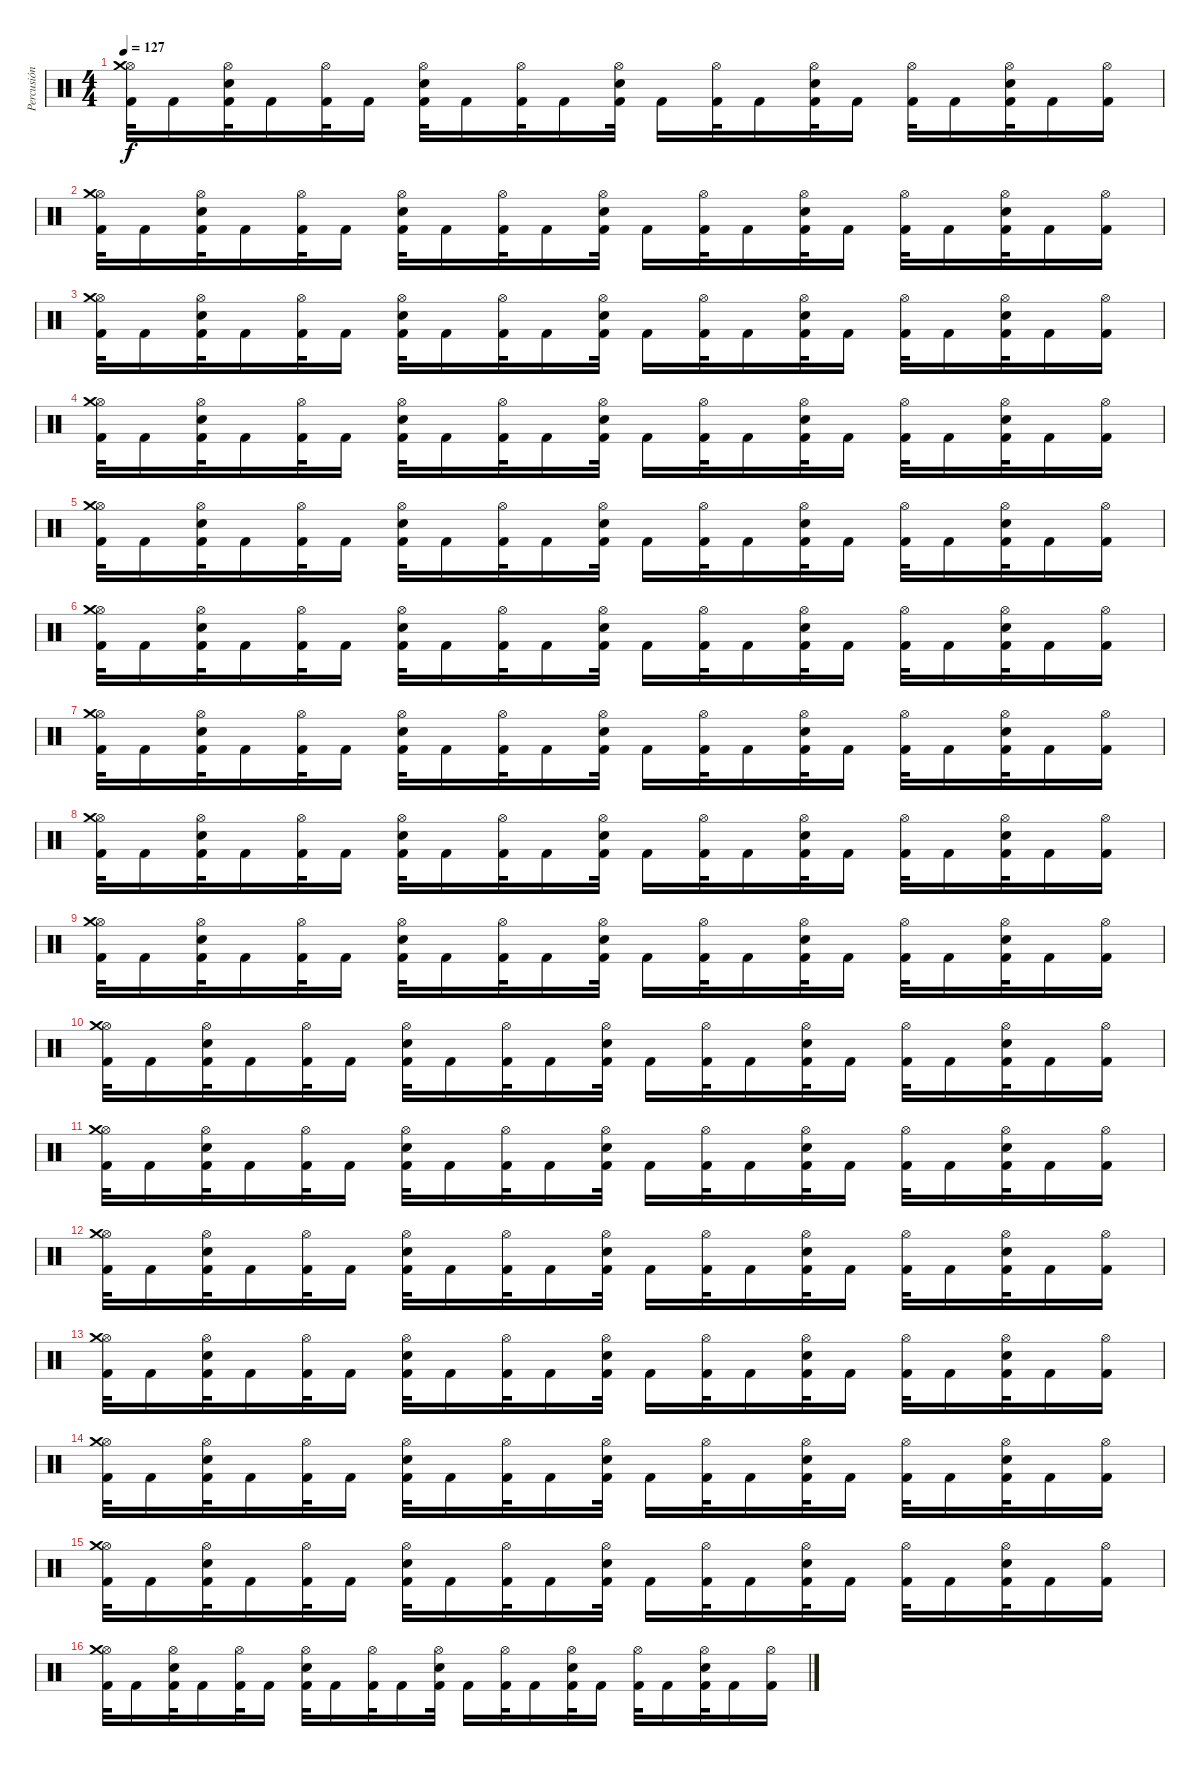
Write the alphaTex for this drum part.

\track ("Percusión" "Percusión") {instrument percussion}
\staff {score}
\articulation defaults
\ts (4 4)
\tempo 127
\clef neutral
\ks c
("Hi-Hat (open)" "Kick (hit) 2" "Crash medium (hit)").32{dy f} "Kick (hit) 2".16 ("Hi-Hat (open)" "Electric Snare (hit)" "Kick (hit) 2").32 "Kick (hit) 2".16 ("Hi-Hat (open)" "Kick (hit) 2").32 "Kick (hit) 2".16 ("Hi-Hat (open)" "Electric Snare (hit)" "Kick (hit) 2").32 "Kick (hit) 2".16 ("Hi-Hat (open)" "Kick (hit) 2").32 "Kick (hit) 2".16 ("Hi-Hat (open)" "Electric Snare (hit)" "Kick (hit) 2").32 "Kick (hit) 2".16 ("Hi-Hat (open)" "Kick (hit) 2").32 "Kick (hit) 2".16 ("Hi-Hat (open)" "Electric Snare (hit)" "Kick (hit) 2").32 "Kick (hit) 2".16 ("Hi-Hat (open)" "Kick (hit) 2").32 "Kick (hit) 2".16 ("Hi-Hat (open)" "Electric Snare (hit)" "Kick (hit) 2").32 "Kick (hit) 2".16 ("Hi-Hat (open)" "Kick (hit) 2").16 |
("Hi-Hat (open)" "Kick (hit) 2" "Crash medium (hit)").32 "Kick (hit) 2".16 ("Hi-Hat (open)" "Electric Snare (hit)" "Kick (hit) 2").32 "Kick (hit) 2".16 ("Hi-Hat (open)" "Kick (hit) 2").32 "Kick (hit) 2".16 ("Hi-Hat (open)" "Electric Snare (hit)" "Kick (hit) 2").32 "Kick (hit) 2".16 ("Hi-Hat (open)" "Kick (hit) 2").32 "Kick (hit) 2".16 ("Hi-Hat (open)" "Electric Snare (hit)" "Kick (hit) 2").32 "Kick (hit) 2".16 ("Hi-Hat (open)" "Kick (hit) 2").32 "Kick (hit) 2".16 ("Hi-Hat (open)" "Electric Snare (hit)" "Kick (hit) 2").32 "Kick (hit) 2".16 ("Hi-Hat (open)" "Kick (hit) 2").32 "Kick (hit) 2".16 ("Hi-Hat (open)" "Electric Snare (hit)" "Kick (hit) 2").32 "Kick (hit) 2".16 ("Hi-Hat (open)" "Kick (hit) 2").16 |
("Hi-Hat (open)" "Kick (hit) 2" "Crash medium (hit)").32 "Kick (hit) 2".16 ("Hi-Hat (open)" "Electric Snare (hit)" "Kick (hit) 2").32 "Kick (hit) 2".16 ("Hi-Hat (open)" "Kick (hit) 2").32 "Kick (hit) 2".16 ("Hi-Hat (open)" "Electric Snare (hit)" "Kick (hit) 2").32 "Kick (hit) 2".16 ("Hi-Hat (open)" "Kick (hit) 2").32 "Kick (hit) 2".16 ("Hi-Hat (open)" "Electric Snare (hit)" "Kick (hit) 2").32 "Kick (hit) 2".16 ("Hi-Hat (open)" "Kick (hit) 2").32 "Kick (hit) 2".16 ("Hi-Hat (open)" "Electric Snare (hit)" "Kick (hit) 2").32 "Kick (hit) 2".16 ("Hi-Hat (open)" "Kick (hit) 2").32 "Kick (hit) 2".16 ("Hi-Hat (open)" "Electric Snare (hit)" "Kick (hit) 2").32 "Kick (hit) 2".16 ("Hi-Hat (open)" "Kick (hit) 2").16 |
("Hi-Hat (open)" "Kick (hit) 2" "Crash medium (hit)").32 "Kick (hit) 2".16 ("Hi-Hat (open)" "Electric Snare (hit)" "Kick (hit) 2").32 "Kick (hit) 2".16 ("Hi-Hat (open)" "Kick (hit) 2").32 "Kick (hit) 2".16 ("Hi-Hat (open)" "Electric Snare (hit)" "Kick (hit) 2").32 "Kick (hit) 2".16 ("Hi-Hat (open)" "Kick (hit) 2").32 "Kick (hit) 2".16 ("Hi-Hat (open)" "Electric Snare (hit)" "Kick (hit) 2").32 "Kick (hit) 2".16 ("Hi-Hat (open)" "Kick (hit) 2").32 "Kick (hit) 2".16 ("Hi-Hat (open)" "Electric Snare (hit)" "Kick (hit) 2").32 "Kick (hit) 2".16 ("Hi-Hat (open)" "Kick (hit) 2").32 "Kick (hit) 2".16 ("Hi-Hat (open)" "Electric Snare (hit)" "Kick (hit) 2").32 "Kick (hit) 2".16 ("Hi-Hat (open)" "Kick (hit) 2").16 |
("Hi-Hat (open)" "Kick (hit) 2" "Crash medium (hit)").32 "Kick (hit) 2".16 ("Hi-Hat (open)" "Electric Snare (hit)" "Kick (hit) 2").32 "Kick (hit) 2".16 ("Hi-Hat (open)" "Kick (hit) 2").32 "Kick (hit) 2".16 ("Hi-Hat (open)" "Electric Snare (hit)" "Kick (hit) 2").32 "Kick (hit) 2".16 ("Hi-Hat (open)" "Kick (hit) 2").32 "Kick (hit) 2".16 ("Hi-Hat (open)" "Electric Snare (hit)" "Kick (hit) 2").32 "Kick (hit) 2".16 ("Hi-Hat (open)" "Kick (hit) 2").32 "Kick (hit) 2".16 ("Hi-Hat (open)" "Electric Snare (hit)" "Kick (hit) 2").32 "Kick (hit) 2".16 ("Hi-Hat (open)" "Kick (hit) 2").32 "Kick (hit) 2".16 ("Hi-Hat (open)" "Electric Snare (hit)" "Kick (hit) 2").32 "Kick (hit) 2".16 ("Hi-Hat (open)" "Kick (hit) 2").16 |
("Hi-Hat (open)" "Kick (hit) 2" "Crash medium (hit)").32 "Kick (hit) 2".16 ("Hi-Hat (open)" "Electric Snare (hit)" "Kick (hit) 2").32 "Kick (hit) 2".16 ("Hi-Hat (open)" "Kick (hit) 2").32 "Kick (hit) 2".16 ("Hi-Hat (open)" "Electric Snare (hit)" "Kick (hit) 2").32 "Kick (hit) 2".16 ("Hi-Hat (open)" "Kick (hit) 2").32 "Kick (hit) 2".16 ("Hi-Hat (open)" "Electric Snare (hit)" "Kick (hit) 2").32 "Kick (hit) 2".16 ("Hi-Hat (open)" "Kick (hit) 2").32 "Kick (hit) 2".16 ("Hi-Hat (open)" "Electric Snare (hit)" "Kick (hit) 2").32 "Kick (hit) 2".16 ("Hi-Hat (open)" "Kick (hit) 2").32 "Kick (hit) 2".16 ("Hi-Hat (open)" "Electric Snare (hit)" "Kick (hit) 2").32 "Kick (hit) 2".16 ("Hi-Hat (open)" "Kick (hit) 2").16 |
("Hi-Hat (open)" "Kick (hit) 2" "Crash medium (hit)").32 "Kick (hit) 2".16 ("Hi-Hat (open)" "Electric Snare (hit)" "Kick (hit) 2").32 "Kick (hit) 2".16 ("Hi-Hat (open)" "Kick (hit) 2").32 "Kick (hit) 2".16 ("Hi-Hat (open)" "Electric Snare (hit)" "Kick (hit) 2").32 "Kick (hit) 2".16 ("Hi-Hat (open)" "Kick (hit) 2").32 "Kick (hit) 2".16 ("Hi-Hat (open)" "Electric Snare (hit)" "Kick (hit) 2").32 "Kick (hit) 2".16 ("Hi-Hat (open)" "Kick (hit) 2").32 "Kick (hit) 2".16 ("Hi-Hat (open)" "Electric Snare (hit)" "Kick (hit) 2").32 "Kick (hit) 2".16 ("Hi-Hat (open)" "Kick (hit) 2").32 "Kick (hit) 2".16 ("Hi-Hat (open)" "Electric Snare (hit)" "Kick (hit) 2").32 "Kick (hit) 2".16 ("Hi-Hat (open)" "Kick (hit) 2").16 |
("Hi-Hat (open)" "Kick (hit) 2" "Crash medium (hit)").32 "Kick (hit) 2".16 ("Hi-Hat (open)" "Electric Snare (hit)" "Kick (hit) 2").32 "Kick (hit) 2".16 ("Hi-Hat (open)" "Kick (hit) 2").32 "Kick (hit) 2".16 ("Hi-Hat (open)" "Electric Snare (hit)" "Kick (hit) 2").32 "Kick (hit) 2".16 ("Hi-Hat (open)" "Kick (hit) 2").32 "Kick (hit) 2".16 ("Hi-Hat (open)" "Electric Snare (hit)" "Kick (hit) 2").32 "Kick (hit) 2".16 ("Hi-Hat (open)" "Kick (hit) 2").32 "Kick (hit) 2".16 ("Hi-Hat (open)" "Electric Snare (hit)" "Kick (hit) 2").32 "Kick (hit) 2".16 ("Hi-Hat (open)" "Kick (hit) 2").32 "Kick (hit) 2".16 ("Hi-Hat (open)" "Electric Snare (hit)" "Kick (hit) 2").32 "Kick (hit) 2".16 ("Hi-Hat (open)" "Kick (hit) 2").16 |
("Hi-Hat (open)" "Kick (hit) 2" "Crash medium (hit)").32 "Kick (hit) 2".16 ("Hi-Hat (open)" "Electric Snare (hit)" "Kick (hit) 2").32 "Kick (hit) 2".16 ("Hi-Hat (open)" "Kick (hit) 2").32 "Kick (hit) 2".16 ("Hi-Hat (open)" "Electric Snare (hit)" "Kick (hit) 2").32 "Kick (hit) 2".16 ("Hi-Hat (open)" "Kick (hit) 2").32 "Kick (hit) 2".16 ("Hi-Hat (open)" "Electric Snare (hit)" "Kick (hit) 2").32 "Kick (hit) 2".16 ("Hi-Hat (open)" "Kick (hit) 2").32 "Kick (hit) 2".16 ("Hi-Hat (open)" "Electric Snare (hit)" "Kick (hit) 2").32 "Kick (hit) 2".16 ("Hi-Hat (open)" "Kick (hit) 2").32 "Kick (hit) 2".16 ("Hi-Hat (open)" "Electric Snare (hit)" "Kick (hit) 2").32 "Kick (hit) 2".16 ("Hi-Hat (open)" "Kick (hit) 2").16 |
("Hi-Hat (open)" "Kick (hit) 2" "Crash medium (hit)").32 "Kick (hit) 2".16 ("Hi-Hat (open)" "Electric Snare (hit)" "Kick (hit) 2").32 "Kick (hit) 2".16 ("Hi-Hat (open)" "Kick (hit) 2").32 "Kick (hit) 2".16 ("Hi-Hat (open)" "Electric Snare (hit)" "Kick (hit) 2").32 "Kick (hit) 2".16 ("Hi-Hat (open)" "Kick (hit) 2").32 "Kick (hit) 2".16 ("Hi-Hat (open)" "Electric Snare (hit)" "Kick (hit) 2").32 "Kick (hit) 2".16 ("Hi-Hat (open)" "Kick (hit) 2").32 "Kick (hit) 2".16 ("Hi-Hat (open)" "Electric Snare (hit)" "Kick (hit) 2").32 "Kick (hit) 2".16 ("Hi-Hat (open)" "Kick (hit) 2").32 "Kick (hit) 2".16 ("Hi-Hat (open)" "Electric Snare (hit)" "Kick (hit) 2").32 "Kick (hit) 2".16 ("Hi-Hat (open)" "Kick (hit) 2").16 |
("Hi-Hat (open)" "Kick (hit) 2" "Crash medium (hit)").32 "Kick (hit) 2".16 ("Hi-Hat (open)" "Electric Snare (hit)" "Kick (hit) 2").32 "Kick (hit) 2".16 ("Hi-Hat (open)" "Kick (hit) 2").32 "Kick (hit) 2".16 ("Hi-Hat (open)" "Electric Snare (hit)" "Kick (hit) 2").32 "Kick (hit) 2".16 ("Hi-Hat (open)" "Kick (hit) 2").32 "Kick (hit) 2".16 ("Hi-Hat (open)" "Electric Snare (hit)" "Kick (hit) 2").32 "Kick (hit) 2".16 ("Hi-Hat (open)" "Kick (hit) 2").32 "Kick (hit) 2".16 ("Hi-Hat (open)" "Electric Snare (hit)" "Kick (hit) 2").32 "Kick (hit) 2".16 ("Hi-Hat (open)" "Kick (hit) 2").32 "Kick (hit) 2".16 ("Hi-Hat (open)" "Electric Snare (hit)" "Kick (hit) 2").32 "Kick (hit) 2".16 ("Hi-Hat (open)" "Kick (hit) 2").16 |
("Hi-Hat (open)" "Kick (hit) 2" "Crash medium (hit)").32 "Kick (hit) 2".16 ("Hi-Hat (open)" "Electric Snare (hit)" "Kick (hit) 2").32 "Kick (hit) 2".16 ("Hi-Hat (open)" "Kick (hit) 2").32 "Kick (hit) 2".16 ("Hi-Hat (open)" "Electric Snare (hit)" "Kick (hit) 2").32 "Kick (hit) 2".16 ("Hi-Hat (open)" "Kick (hit) 2").32 "Kick (hit) 2".16 ("Hi-Hat (open)" "Electric Snare (hit)" "Kick (hit) 2").32 "Kick (hit) 2".16 ("Hi-Hat (open)" "Kick (hit) 2").32 "Kick (hit) 2".16 ("Hi-Hat (open)" "Electric Snare (hit)" "Kick (hit) 2").32 "Kick (hit) 2".16 ("Hi-Hat (open)" "Kick (hit) 2").32 "Kick (hit) 2".16 ("Hi-Hat (open)" "Electric Snare (hit)" "Kick (hit) 2").32 "Kick (hit) 2".16 ("Hi-Hat (open)" "Kick (hit) 2").16 |
("Hi-Hat (open)" "Kick (hit) 2" "Crash medium (hit)").32 "Kick (hit) 2".16 ("Hi-Hat (open)" "Electric Snare (hit)" "Kick (hit) 2").32 "Kick (hit) 2".16 ("Hi-Hat (open)" "Kick (hit) 2").32 "Kick (hit) 2".16 ("Hi-Hat (open)" "Electric Snare (hit)" "Kick (hit) 2").32 "Kick (hit) 2".16 ("Hi-Hat (open)" "Kick (hit) 2").32 "Kick (hit) 2".16 ("Hi-Hat (open)" "Electric Snare (hit)" "Kick (hit) 2").32 "Kick (hit) 2".16 ("Hi-Hat (open)" "Kick (hit) 2").32 "Kick (hit) 2".16 ("Hi-Hat (open)" "Electric Snare (hit)" "Kick (hit) 2").32 "Kick (hit) 2".16 ("Hi-Hat (open)" "Kick (hit) 2").32 "Kick (hit) 2".16 ("Hi-Hat (open)" "Electric Snare (hit)" "Kick (hit) 2").32 "Kick (hit) 2".16 ("Hi-Hat (open)" "Kick (hit) 2").16 |
("Hi-Hat (open)" "Kick (hit) 2" "Crash medium (hit)").32 "Kick (hit) 2".16 ("Hi-Hat (open)" "Electric Snare (hit)" "Kick (hit) 2").32 "Kick (hit) 2".16 ("Hi-Hat (open)" "Kick (hit) 2").32 "Kick (hit) 2".16 ("Hi-Hat (open)" "Electric Snare (hit)" "Kick (hit) 2").32 "Kick (hit) 2".16 ("Hi-Hat (open)" "Kick (hit) 2").32 "Kick (hit) 2".16 ("Hi-Hat (open)" "Electric Snare (hit)" "Kick (hit) 2").32 "Kick (hit) 2".16 ("Hi-Hat (open)" "Kick (hit) 2").32 "Kick (hit) 2".16 ("Hi-Hat (open)" "Electric Snare (hit)" "Kick (hit) 2").32 "Kick (hit) 2".16 ("Hi-Hat (open)" "Kick (hit) 2").32 "Kick (hit) 2".16 ("Hi-Hat (open)" "Electric Snare (hit)" "Kick (hit) 2").32 "Kick (hit) 2".16 ("Hi-Hat (open)" "Kick (hit) 2").16 |
("Hi-Hat (open)" "Kick (hit) 2" "Crash medium (hit)").32 "Kick (hit) 2".16 ("Hi-Hat (open)" "Electric Snare (hit)" "Kick (hit) 2").32 "Kick (hit) 2".16 ("Hi-Hat (open)" "Kick (hit) 2").32 "Kick (hit) 2".16 ("Hi-Hat (open)" "Electric Snare (hit)" "Kick (hit) 2").32 "Kick (hit) 2".16 ("Hi-Hat (open)" "Kick (hit) 2").32 "Kick (hit) 2".16 ("Hi-Hat (open)" "Electric Snare (hit)" "Kick (hit) 2").32 "Kick (hit) 2".16 ("Hi-Hat (open)" "Kick (hit) 2").32 "Kick (hit) 2".16 ("Hi-Hat (open)" "Electric Snare (hit)" "Kick (hit) 2").32 "Kick (hit) 2".16 ("Hi-Hat (open)" "Kick (hit) 2").32 "Kick (hit) 2".16 ("Hi-Hat (open)" "Electric Snare (hit)" "Kick (hit) 2").32 "Kick (hit) 2".16 ("Hi-Hat (open)" "Kick (hit) 2").16 |
("Hi-Hat (open)" "Kick (hit) 2" "Crash medium (hit)").32 "Kick (hit) 2".16 ("Hi-Hat (open)" "Electric Snare (hit)" "Kick (hit) 2").32 "Kick (hit) 2".16 ("Hi-Hat (open)" "Kick (hit) 2").32 "Kick (hit) 2".16 ("Hi-Hat (open)" "Electric Snare (hit)" "Kick (hit) 2").32 "Kick (hit) 2".16 ("Hi-Hat (open)" "Kick (hit) 2").32 "Kick (hit) 2".16 ("Hi-Hat (open)" "Electric Snare (hit)" "Kick (hit) 2").32 "Kick (hit) 2".16 ("Hi-Hat (open)" "Kick (hit) 2").32 "Kick (hit) 2".16 ("Hi-Hat (open)" "Electric Snare (hit)" "Kick (hit) 2").32 "Kick (hit) 2".16 ("Hi-Hat (open)" "Kick (hit) 2").32 "Kick (hit) 2".16 ("Hi-Hat (open)" "Electric Snare (hit)" "Kick (hit) 2").32 "Kick (hit) 2".16 ("Hi-Hat (open)" "Kick (hit) 2").16
